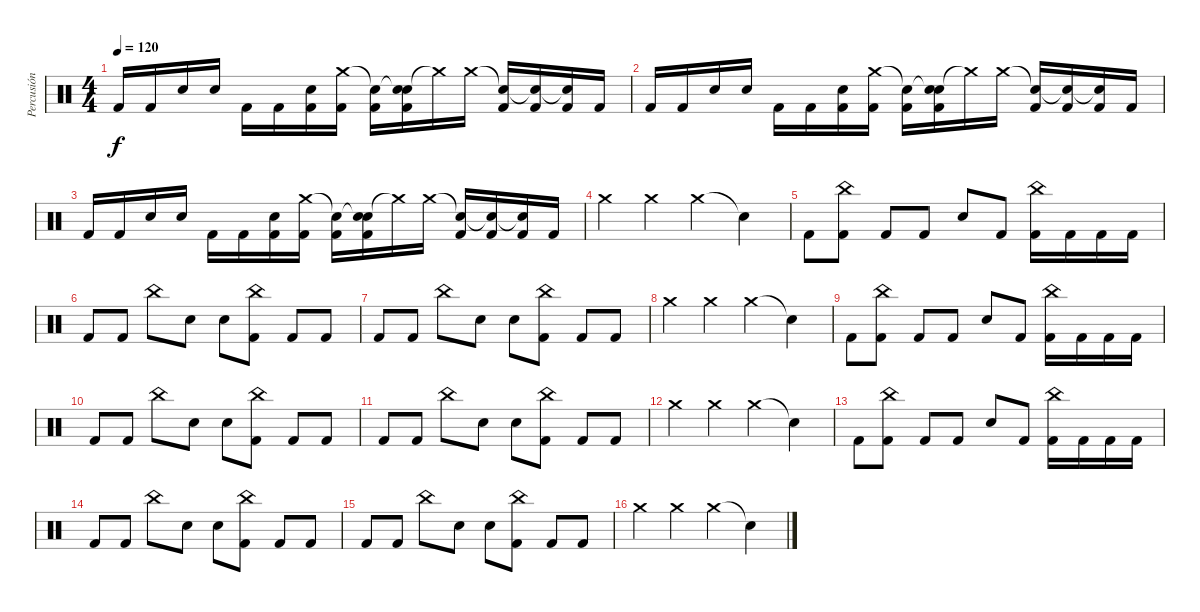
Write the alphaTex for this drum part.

\track ("Percusión" "Percusión") {instrument percussion}
\staff {score}
\articulation defaults
\ts (4 4)
\tempo 120
\clef neutral
\ks c "Kick (hit) 2".16{dy f} "Kick (hit) 2".16 "Electric Snare (hit)".16 "Electric Snare (hit)".16 "Kick (hit) 2".16 "Kick (hit) 2".16
("Electric Snare (hit)" "Kick (hit) 2").16 ("Crash medium (hit)" "Kick (hit) 2").16 ("Snare (hit)"{t} "Kick (hit) 2").16 ("Snare (hit)"{t} "Electric Snare (hit)" "Kick (hit) 2").16 "Crash medium (hit)"{t}.16 "Crash medium (hit)".16 ("Snare (hit)"{t} "Kick (hit) 2").16 ("Snare (hit)"{t} "Kick (hit) 2").16 ("Snare (hit)"{t} "Kick (hit) 2").16 "Kick (hit) 2".16 |
"Kick (hit) 2".16 "Kick (hit) 2".16 "Electric Snare (hit)".16 "Electric Snare (hit)".16 "Kick (hit) 2".16 "Kick (hit) 2".16 ("Electric Snare (hit)" "Kick (hit) 2").16 ("Crash medium (hit)" "Kick (hit) 2").16 ("Snare (hit)"{t} "Kick (hit) 2").16 ("Snare (hit)"{t} "Electric Snare (hit)" "Kick (hit) 2").16 "Crash medium (hit)"{t}.16 "Crash medium (hit)".16 ("Snare (hit)"{t} "Kick (hit) 2").16 ("Snare (hit)"{t} "Kick (hit) 2").16 ("Snare (hit)"{t} "Kick (hit) 2").16 "Kick (hit) 2".16 |
"Kick (hit) 2".16 "Kick (hit) 2".16 "Electric Snare (hit)".16 "Electric Snare (hit)".16 "Kick (hit) 2".16 "Kick (hit) 2".16 ("Electric Snare (hit)" "Kick (hit) 2").16 ("Crash medium (hit)" "Kick (hit) 2").16 ("Snare (hit)"{t} "Kick (hit) 2").16 ("Snare (hit)"{t} "Electric Snare (hit)" "Kick (hit) 2").16 "Crash medium (hit)"{t}.16 "Crash medium (hit)".16 ("Snare (hit)"{t} "Kick (hit) 2").16 ("Snare (hit)"{t} "Kick (hit) 2").16 ("Snare (hit)"{t} "Kick (hit) 2").16 "Kick (hit) 2".16 |
"Crash medium (hit)".4 "Crash medium (hit)".4 "Crash medium (hit)".4 "Snare (hit)"{t}.4 |
"Kick (hit) 2".8 ("China (hit)" "Kick (hit) 2").8 "Kick (hit) 2".8 "Kick (hit) 2".8 "Electric Snare (hit)".8 "Kick (hit) 2".8 ("China (hit)" "Kick (hit) 2").16 "Kick (hit) 2".16 "Kick (hit) 2".16 "Kick (hit) 2".16 |
"Kick (hit) 2".8 "Kick (hit) 2".8 "China (hit)".8 "Electric Snare (hit)".8 "Electric Snare (hit)".8 ("China (hit)" "Kick (hit) 2").8 "Kick (hit) 2".8 "Kick (hit) 2".8 |
"Kick (hit) 2".8 "Kick (hit) 2".8 "China (hit)".8 "Electric Snare (hit)".8 "Electric Snare (hit)".8 ("China (hit)" "Kick (hit) 2").8 "Kick (hit) 2".8 "Kick (hit) 2".8 |
"Crash medium (hit)".4 "Crash medium (hit)".4 "Crash medium (hit)".4 "Snare (hit)"{t}.4 |
"Kick (hit) 2".8 ("China (hit)" "Kick (hit) 2").8 "Kick (hit) 2".8 "Kick (hit) 2".8 "Electric Snare (hit)".8 "Kick (hit) 2".8 ("China (hit)" "Kick (hit) 2").16 "Kick (hit) 2".16 "Kick (hit) 2".16 "Kick (hit) 2".16 |
"Kick (hit) 2".8 "Kick (hit) 2".8 "China (hit)".8 "Electric Snare (hit)".8 "Electric Snare (hit)".8 ("China (hit)" "Kick (hit) 2").8 "Kick (hit) 2".8 "Kick (hit) 2".8 |
"Kick (hit) 2".8 "Kick (hit) 2".8 "China (hit)".8 "Electric Snare (hit)".8 "Electric Snare (hit)".8 ("China (hit)" "Kick (hit) 2").8 "Kick (hit) 2".8 "Kick (hit) 2".8 |
"Crash medium (hit)".4 "Crash medium (hit)".4 "Crash medium (hit)".4 "Snare (hit)"{t}.4 |
"Kick (hit) 2".8 ("China (hit)" "Kick (hit) 2").8 "Kick (hit) 2".8 "Kick (hit) 2".8 "Electric Snare (hit)".8 "Kick (hit) 2".8 ("China (hit)" "Kick (hit) 2").16 "Kick (hit) 2".16 "Kick (hit) 2".16 "Kick (hit) 2".16 |
"Kick (hit) 2".8 "Kick (hit) 2".8 "China (hit)".8 "Electric Snare (hit)".8 "Electric Snare (hit)".8 ("China (hit)" "Kick (hit) 2").8 "Kick (hit) 2".8 "Kick (hit) 2".8 |
"Kick (hit) 2".8 "Kick (hit) 2".8 "China (hit)".8 "Electric Snare (hit)".8 "Electric Snare (hit)".8 ("China (hit)" "Kick (hit) 2").8 "Kick (hit) 2".8 "Kick (hit) 2".8 |
"Crash medium (hit)".4 "Crash medium (hit)".4 "Crash medium (hit)".4 "Snare (hit)"{t}.4
